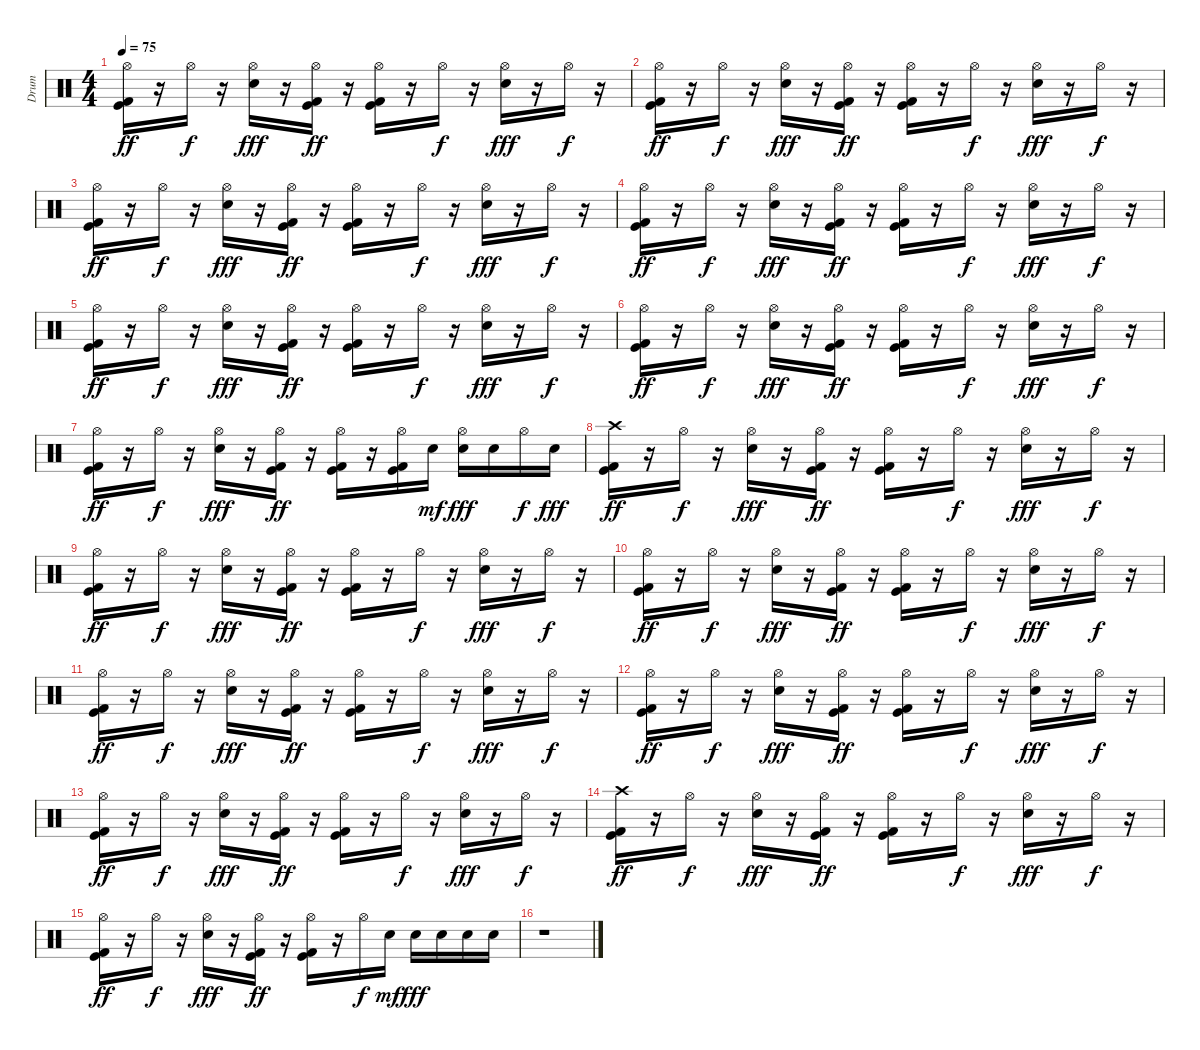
\track ("Drum" "Drum") {instrument percussion}
\staff {score}
\articulation defaults
\ts (4 4)
\tempo 75
\clef neutral
\ks c
("Kick (hit)" "Kick (hit) 2" "Hi-Hat (open)").16{dy ff} r.16 "Hi-Hat (open)".16{dy f} r.16 ("Electric Snare (hit)" "Hi-Hat (open)").16{dy fff} r.16 ("Kick (hit)" "Kick (hit) 2" "Hi-Hat (open)").16{dy ff} r.16 ("Kick (hit)" "Kick (hit) 2" "Hi-Hat (open)").16 r.16 "Hi-Hat (open)".16{dy f} r.16 ("Electric Snare (hit)" "Hi-Hat (open)").16{dy fff} r.16 "Hi-Hat (open)".16{dy f} r.16 |
("Kick (hit)" "Kick (hit) 2" "Hi-Hat (open)").16{dy ff} r.16 "Hi-Hat (open)".16{dy f} r.16 ("Electric Snare (hit)" "Hi-Hat (open)").16{dy fff} r.16 ("Kick (hit)" "Kick (hit) 2" "Hi-Hat (open)").16{dy ff} r.16 ("Kick (hit)" "Kick (hit) 2" "Hi-Hat (open)").16 r.16 "Hi-Hat (open)".16{dy f} r.16 ("Electric Snare (hit)" "Hi-Hat (open)").16{dy fff} r.16 "Hi-Hat (open)".16{dy f} r.16 |
("Kick (hit)" "Kick (hit) 2" "Hi-Hat (open)").16{dy ff} r.16 "Hi-Hat (open)".16{dy f} r.16 ("Electric Snare (hit)" "Hi-Hat (open)").16{dy fff} r.16 ("Kick (hit)" "Kick (hit) 2" "Hi-Hat (open)").16{dy ff} r.16 ("Kick (hit)" "Kick (hit) 2" "Hi-Hat (open)").16 r.16 "Hi-Hat (open)".16{dy f} r.16 ("Electric Snare (hit)" "Hi-Hat (open)").16{dy fff} r.16 "Hi-Hat (open)".16{dy f} r.16 |
("Kick (hit)" "Kick (hit) 2" "Hi-Hat (open)").16{dy ff} r.16 "Hi-Hat (open)".16{dy f} r.16 ("Electric Snare (hit)" "Hi-Hat (open)").16{dy fff} r.16 ("Kick (hit)" "Kick (hit) 2" "Hi-Hat (open)").16{dy ff} r.16 ("Kick (hit)" "Kick (hit) 2" "Hi-Hat (open)").16 r.16 "Hi-Hat (open)".16{dy f} r.16 ("Electric Snare (hit)" "Hi-Hat (open)").16{dy fff} r.16 "Hi-Hat (open)".16{dy f} r.16 |
("Kick (hit)" "Kick (hit) 2" "Hi-Hat (open)").16{dy ff} r.16 "Hi-Hat (open)".16{dy f} r.16 ("Electric Snare (hit)" "Hi-Hat (open)").16{dy fff} r.16 ("Kick (hit)" "Kick (hit) 2" "Hi-Hat (open)").16{dy ff} r.16 ("Kick (hit)" "Kick (hit) 2" "Hi-Hat (open)").16 r.16 "Hi-Hat (open)".16{dy f} r.16 ("Electric Snare (hit)" "Hi-Hat (open)").16{dy fff} r.16 "Hi-Hat (open)".16{dy f} r.16 |
("Kick (hit)" "Kick (hit) 2" "Hi-Hat (open)").16{dy ff} r.16 "Hi-Hat (open)".16{dy f} r.16 ("Electric Snare (hit)" "Hi-Hat (open)").16{dy fff} r.16 ("Kick (hit)" "Kick (hit) 2" "Hi-Hat (open)").16{dy ff} r.16 ("Kick (hit)" "Kick (hit) 2" "Hi-Hat (open)").16 r.16 "Hi-Hat (open)".16{dy f} r.16 ("Electric Snare (hit)" "Hi-Hat (open)").16{dy fff} r.16 "Hi-Hat (open)".16{dy f} r.16 |
("Kick (hit)" "Kick (hit) 2" "Hi-Hat (open)").16{dy ff} r.16 "Hi-Hat (open)".16{dy f} r.16 ("Electric Snare (hit)" "Hi-Hat (open)").16{dy fff} r.16 ("Kick (hit)" "Kick (hit) 2" "Hi-Hat (open)").16{dy ff} r.16 ("Kick (hit)" "Kick (hit) 2" "Hi-Hat (open)").16 r.16 ("Hi-Hat (open)" "Kick (hit)" "Kick (hit) 2").16 "Electric Snare (hit)".16{dy mf} ("Hi-Hat (open)" "Electric Snare (hit)").16{dy fff} "Electric Snare (hit)".16 "Hi-Hat (open)".16{dy f} "Electric Snare (hit)".16{dy fff} |
("Crash high (hit)" "Kick (hit)" "Kick (hit) 2").16{dy ff} r.16 "Hi-Hat (open)".16{dy f} r.16 ("Electric Snare (hit)" "Hi-Hat (open)").16{dy fff} r.16 ("Kick (hit)" "Kick (hit) 2" "Hi-Hat (open)").16{dy ff} r.16 ("Kick (hit)" "Kick (hit) 2" "Hi-Hat (open)").16 r.16 "Hi-Hat (open)".16{dy f} r.16 ("Electric Snare (hit)" "Hi-Hat (open)").16{dy fff} r.16 "Hi-Hat (open)".16{dy f} r.16 |
("Kick (hit)" "Kick (hit) 2" "Hi-Hat (open)").16{dy ff} r.16 "Hi-Hat (open)".16{dy f} r.16 ("Electric Snare (hit)" "Hi-Hat (open)").16{dy fff} r.16 ("Kick (hit)" "Kick (hit) 2" "Hi-Hat (open)").16{dy ff} r.16 ("Kick (hit)" "Kick (hit) 2" "Hi-Hat (open)").16 r.16 "Hi-Hat (open)".16{dy f} r.16 ("Electric Snare (hit)" "Hi-Hat (open)").16{dy fff} r.16 "Hi-Hat (open)".16{dy f} r.16 |
("Kick (hit)" "Kick (hit) 2" "Hi-Hat (open)").16{dy ff} r.16 "Hi-Hat (open)".16{dy f} r.16 ("Electric Snare (hit)" "Hi-Hat (open)").16{dy fff} r.16 ("Kick (hit)" "Kick (hit) 2" "Hi-Hat (open)").16{dy ff} r.16 ("Kick (hit)" "Kick (hit) 2" "Hi-Hat (open)").16 r.16 "Hi-Hat (open)".16{dy f} r.16 ("Electric Snare (hit)" "Hi-Hat (open)").16{dy fff} r.16 "Hi-Hat (open)".16{dy f} r.16 |
("Kick (hit)" "Kick (hit) 2" "Hi-Hat (open)").16{dy ff} r.16 "Hi-Hat (open)".16{dy f} r.16 ("Electric Snare (hit)" "Hi-Hat (open)").16{dy fff} r.16 ("Kick (hit)" "Kick (hit) 2" "Hi-Hat (open)").16{dy ff} r.16 ("Kick (hit)" "Kick (hit) 2" "Hi-Hat (open)").16 r.16 "Hi-Hat (open)".16{dy f} r.16 ("Electric Snare (hit)" "Hi-Hat (open)").16{dy fff} r.16 "Hi-Hat (open)".16{dy f} r.16 |
("Kick (hit)" "Kick (hit) 2" "Hi-Hat (open)").16{dy ff} r.16 "Hi-Hat (open)".16{dy f} r.16 ("Electric Snare (hit)" "Hi-Hat (open)").16{dy fff} r.16 ("Kick (hit)" "Kick (hit) 2" "Hi-Hat (open)").16{dy ff} r.16 ("Kick (hit)" "Kick (hit) 2" "Hi-Hat (open)").16 r.16 "Hi-Hat (open)".16{dy f} r.16 ("Electric Snare (hit)" "Hi-Hat (open)").16{dy fff} r.16 "Hi-Hat (open)".16{dy f} r.16 |
("Kick (hit)" "Kick (hit) 2" "Hi-Hat (open)").16{dy ff} r.16 "Hi-Hat (open)".16{dy f} r.16 ("Electric Snare (hit)" "Hi-Hat (open)").16{dy fff} r.16 ("Kick (hit)" "Kick (hit) 2" "Hi-Hat (open)").16{dy ff} r.16 ("Kick (hit)" "Kick (hit) 2" "Hi-Hat (open)").16 r.16 "Hi-Hat (open)".16{dy f} r.16 ("Electric Snare (hit)" "Hi-Hat (open)").16{dy fff} r.16 "Hi-Hat (open)".16{dy f} r.16 |
("Kick (hit)" "Kick (hit) 2" "Crash high (hit)").16{dy ff} r.16 "Hi-Hat (open)".16{dy f} r.16 ("Electric Snare (hit)" "Hi-Hat (open)").16{dy fff} r.16 ("Kick (hit)" "Kick (hit) 2" "Hi-Hat (open)").16{dy ff} r.16 ("Kick (hit)" "Kick (hit) 2" "Hi-Hat (open)").16 r.16 "Hi-Hat (open)".16{dy f} r.16 ("Electric Snare (hit)" "Hi-Hat (open)").16{dy fff} r.16 "Hi-Hat (open)".16{dy f} r.16 |
("Kick (hit)" "Kick (hit) 2" "Hi-Hat (open)").16{dy ff} r.16 "Hi-Hat (open)".16{dy f} r.16 ("Electric Snare (hit)" "Hi-Hat (open)").16{dy fff} r.16 ("Kick (hit)" "Kick (hit) 2" "Hi-Hat (open)").16{dy ff} r.16 ("Kick (hit)" "Kick (hit) 2" "Hi-Hat (open)").16 r.16 "Hi-Hat (open)".16{dy f} "Electric Snare (hit)".16{dy mf} "Electric Snare (hit)".16{dy fff} "Electric Snare (hit)".16 "Electric Snare (hit)".16 "Electric Snare (hit)".16 |
r.1
